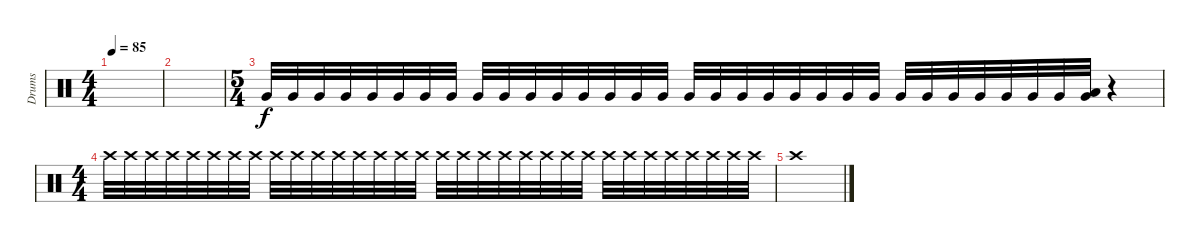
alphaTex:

\track ("Drums" "Drums") {instrument percussion}
\staff {score}
\articulation defaults
\ts (4 4)
\tempo 85
\clef neutral
\ks c
|
|
\ts (5 4)
"Very Low Tom (hit)".32{volume 13} "Very Low Tom (hit)".32 "Very Low Tom (hit)".32 "Very Low Tom (hit)".32 "Very Low Tom (hit)".32 "Very Low Tom (hit)".32 "Very Low Tom (hit)".32 "Very Low Tom (hit)".32 "Very Low Tom (hit)".32 "Very Low Tom (hit)".32 "Very Low Tom (hit)".32 "Very Low Tom (hit)".32 "Very Low Tom (hit)".32 "Very Low Tom (hit)".32 "Very Low Tom (hit)".32 "Very Low Tom (hit)".32 "Very Low Tom (hit)".32 "Very Low Tom (hit)".32 "Very Low Tom (hit)".32 "Very Low Tom (hit)".32 "Very Low Tom (hit)".32 "Very Low Tom (hit)".32 "Very Low Tom (hit)".32 "Very Low Tom (hit)".32 "Very Low Tom (hit)".32 "Very Low Tom (hit)".32 "Very Low Tom (hit)".32 "Very Low Tom (hit)".32 "Very Low Tom (hit)".32 "Very Low Tom (hit)".32 "Very Low Tom (hit)".32 ("Low Floor Tom (hit)" "Very Low Tom (hit)").32 r.4{volume 0} |
\ts (4 4)
"Crash high (hit)".32{volume 13} "Crash high (hit)".32 "Crash high (hit)".32 "Crash high (hit)".32 "Crash high (hit)".32 "Crash high (hit)".32 "Crash high (hit)".32 "Crash high (hit)".32 "Crash high (hit)".32 "Crash high (hit)".32 "Crash high (hit)".32 "Crash high (hit)".32 "Crash high (hit)".32 "Crash high (hit)".32 "Crash high (hit)".32 "Crash high (hit)".32 "Crash high (hit)".32 "Crash high (hit)".32 "Crash high (hit)".32 "Crash high (hit)".32 "Crash high (hit)".32 "Crash high (hit)".32 "Crash high (hit)".32 "Crash high (hit)".32 "Crash high (hit)".32 "Crash high (hit)".32 "Crash high (hit)".32 "Crash high (hit)".32 "Crash high (hit)".32 "Crash high (hit)".32 "Crash high (hit)".32 "Crash high (hit)".32 |
"Crash high (hit)".1
